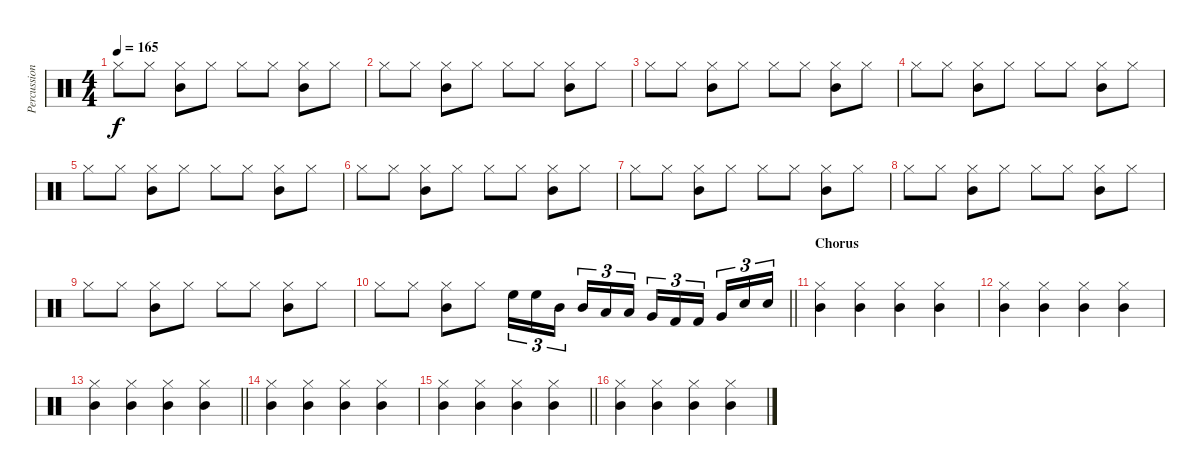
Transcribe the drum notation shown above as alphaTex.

\track ("Percussion Improvisation" "Percussion") {instrument percussion}
\staff {score}
\articulation defaults
\ts (4 4)
\tempo 165
\clef neutral
\ks c "Hi-Hat (closed)".8{dy f} "Hi-Hat (closed)".8
("Hi-Hat (closed)" "Mid Tom (hit)").8 "Hi-Hat (closed)".8 "Hi-Hat (closed)".8 "Hi-Hat (closed)".8 ("Hi-Hat (closed)" "Mid Tom (hit)").8 "Hi-Hat (closed)".8 |
"Hi-Hat (closed)".8 "Hi-Hat (closed)".8 ("Hi-Hat (closed)" "Mid Tom (hit)").8 "Hi-Hat (closed)".8 "Hi-Hat (closed)".8 "Hi-Hat (closed)".8 ("Hi-Hat (closed)" "Mid Tom (hit)").8 "Hi-Hat (closed)".8 |
"Hi-Hat (closed)".8 "Hi-Hat (closed)".8 ("Hi-Hat (closed)" "Mid Tom (hit)").8 "Hi-Hat (closed)".8 "Hi-Hat (closed)".8 "Hi-Hat (closed)".8 ("Hi-Hat (closed)" "Mid Tom (hit)").8 "Hi-Hat (closed)".8 |
"Hi-Hat (closed)".8 "Hi-Hat (closed)".8 ("Hi-Hat (closed)" "Mid Tom (hit)").8 "Hi-Hat (closed)".8 "Hi-Hat (closed)".8 "Hi-Hat (closed)".8 ("Hi-Hat (closed)" "Mid Tom (hit)").8 "Hi-Hat (closed)".8 |
"Hi-Hat (closed)".8 "Hi-Hat (closed)".8 ("Hi-Hat (closed)" "Mid Tom (hit)").8 "Hi-Hat (closed)".8 "Hi-Hat (closed)".8 "Hi-Hat (closed)".8 ("Hi-Hat (closed)" "Mid Tom (hit)").8 "Hi-Hat (closed)".8 |
"Hi-Hat (closed)".8 "Hi-Hat (closed)".8 ("Hi-Hat (closed)" "Mid Tom (hit)").8 "Hi-Hat (closed)".8 "Hi-Hat (closed)".8 "Hi-Hat (closed)".8 ("Hi-Hat (closed)" "Mid Tom (hit)").8 "Hi-Hat (closed)".8 |
"Hi-Hat (closed)".8 "Hi-Hat (closed)".8 ("Hi-Hat (closed)" "Mid Tom (hit)").8 "Hi-Hat (closed)".8 "Hi-Hat (closed)".8 "Hi-Hat (closed)".8 ("Hi-Hat (closed)" "Mid Tom (hit)").8 "Hi-Hat (closed)".8 |
"Hi-Hat (closed)".8 "Hi-Hat (closed)".8 ("Hi-Hat (closed)" "Mid Tom (hit)").8 "Hi-Hat (closed)".8 "Hi-Hat (closed)".8 "Hi-Hat (closed)".8 ("Hi-Hat (closed)" "Mid Tom (hit)").8 "Hi-Hat (closed)".8 |
"Hi-Hat (closed)".8 "Hi-Hat (closed)".8 ("Hi-Hat (closed)" "Mid Tom (hit)").8 "Hi-Hat (closed)".8 "Hi-Hat (closed)".8 "Hi-Hat (closed)".8 ("Hi-Hat (closed)" "Mid Tom (hit)").8 "Hi-Hat (closed)".8 |
\barLineRight lightlight "Hi-Hat (closed)".8 "Hi-Hat (closed)".8
("Hi-Hat (closed)" "Mid Tom (hit)").8 "Hi-Hat (closed)".8 "High Floor Tom (hit)".16{tu (3 2) volume 8} "High Floor Tom (hit)".16{tu (3 2)} "Mid Tom (hit)".16{tu (3 2) beam splitsecondary} "Mid Tom (hit)".16{tu (3 2)} "Low Tom (hit)".16{tu (3 2)} "Low Tom (hit)".16{tu (3 2)} "Very Low Tom (hit)".16{tu (3 2)} "Kick (hit) 2".16{tu (3 2)} "Kick (hit) 2".16{tu (3 2) beam splitsecondary} "Very Low Tom (hit)".16{tu (3 2)} "Electric Snare (hit)".16{tu (3 2)} "Electric Snare (hit)".16{tu (3 2)} |
\section ("" "Chorus")
("Mid Tom (hit)" "Hi-Hat (closed)").4{volume 13} ("Hi-Hat (closed)" "Mid Tom (hit)").4 ("Hi-Hat (closed)" "Mid Tom (hit)").4 ("Mid Tom (hit)" "Hi-Hat (closed)").4 |
("Hi-Hat (closed)" "Mid Tom (hit)").4 ("Mid Tom (hit)" "Hi-Hat (closed)").4 ("Hi-Hat (closed)" "Mid Tom (hit)").4 ("Hi-Hat (closed)" "Mid Tom (hit)").4 |
\barLineRight lightlight
("Hi-Hat (closed)" "Mid Tom (hit)").4 ("Mid Tom (hit)" "Hi-Hat (closed)").4 ("Hi-Hat (closed)" "Mid Tom (hit)").4 ("Hi-Hat (closed)" "Mid Tom (hit)").4 |
("Hi-Hat (closed)" "Mid Tom (hit)").4 ("Mid Tom (hit)" "Hi-Hat (closed)").4 ("Hi-Hat (closed)" "Mid Tom (hit)").4 ("Hi-Hat (closed)" "Mid Tom (hit)").4 |
\barLineRight lightlight
("Hi-Hat (closed)" "Mid Tom (hit)").4 ("Mid Tom (hit)" "Hi-Hat (closed)").4 ("Hi-Hat (closed)" "Mid Tom (hit)").4 ("Hi-Hat (closed)" "Mid Tom (hit)").4 |
("Hi-Hat (closed)" "Mid Tom (hit)").4 ("Mid Tom (hit)" "Hi-Hat (closed)").4 ("Hi-Hat (closed)" "Mid Tom (hit)").4 ("Hi-Hat (closed)" "Mid Tom (hit)").4
